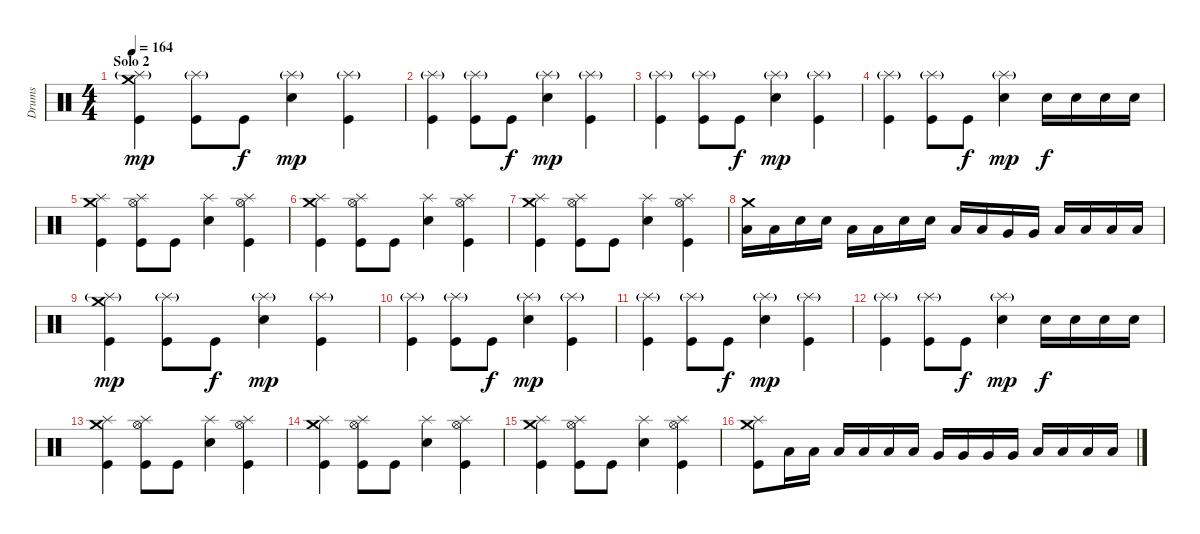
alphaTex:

\track ("Drums" "Drums") {instrument percussion}
\staff {score}
\articulation defaults
\ts (4 4)
\section ("" "Solo 2")
\tempo 164
\clef neutral
\ks c
("Crash medium (hit)" "Splash (hit)"{g} "Kick (hit)").4{dy mp} ("Splash (hit)"{g} "Kick (hit)").8 "Kick (hit)".8{dy f} ("Splash (hit)"{g} "Electric Snare (hit)").4{dy mp} ("Splash (hit)"{g} "Kick (hit)").4 |
("Splash (hit)"{g} "Kick (hit)").4 ("Splash (hit)"{g} "Kick (hit)").8 "Kick (hit)".8{dy f} ("Splash (hit)"{g} "Electric Snare (hit)").4{dy mp} ("Splash (hit)"{g} "Kick (hit)").4 |
("Splash (hit)"{g} "Kick (hit)").4 ("Splash (hit)"{g} "Kick (hit)").8 "Kick (hit)".8{dy f} ("Splash (hit)"{g} "Electric Snare (hit)").4{dy mp} ("Splash (hit)"{g} "Kick (hit)").4 |
("Splash (hit)"{g} "Kick (hit)").4 ("Splash (hit)"{g} "Kick (hit)").8 "Kick (hit)".8{dy f} ("Splash (hit)"{g} "Electric Snare (hit)").4{dy mp} "Electric Snare (hit)".16{dy f} "Electric Snare (hit)".16 "Electric Snare (hit)".16 "Electric Snare (hit)".16 |
("Crash medium (hit)" "Splash (hit)" "Kick (hit)").4 ("Hi-Hat (open)" "Splash (hit)" "Kick (hit)").8 "Kick (hit)".8 ("Splash (hit)" "Electric Snare (hit)").4 ("Hi-Hat (open)" "Splash (hit)" "Kick (hit)").4 |
("Crash medium (hit)" "Splash (hit)" "Kick (hit)").4 ("Hi-Hat (open)" "Splash (hit)" "Kick (hit)").8 "Kick (hit)".8 ("Splash (hit)" "Electric Snare (hit)").4 ("Hi-Hat (open)" "Splash (hit)" "Kick (hit)").4 |
("Crash medium (hit)" "Splash (hit)" "Kick (hit)").4 ("Hi-Hat (open)" "Splash (hit)" "Kick (hit)").8 "Kick (hit)".8 ("Splash (hit)" "Electric Snare (hit)").4 ("Hi-Hat (open)" "Splash (hit)" "Kick (hit)").4 |
("Crash medium (hit)" "Low Tom (hit)").16 "Low Tom (hit)".16 "Electric Snare (hit)".16 "Electric Snare (hit)".16 "Low Tom (hit)".16 "Low Tom (hit)".16 "Electric Snare (hit)".16 "Electric Snare (hit)".16 "Low Tom (hit)".16 "Low Tom (hit)".16 "Very Low Tom (hit)".16 "Very Low Tom (hit)".16 "Low Floor Tom (hit)".16 "Low Floor Tom (hit)".16 "Low Floor Tom (hit)".16 "Low Floor Tom (hit)".16 |
("Crash medium (hit)" "Splash (hit)"{g} "Kick (hit)").4{dy mp} ("Splash (hit)"{g} "Kick (hit)").8 "Kick (hit)".8{dy f} ("Splash (hit)"{g} "Electric Snare (hit)").4{dy mp} ("Splash (hit)"{g} "Kick (hit)").4 |
("Splash (hit)"{g} "Kick (hit)").4 ("Splash (hit)"{g} "Kick (hit)").8 "Kick (hit)".8{dy f} ("Splash (hit)"{g} "Electric Snare (hit)").4{dy mp} ("Splash (hit)"{g} "Kick (hit)").4 |
("Splash (hit)"{g} "Kick (hit)").4 ("Splash (hit)"{g} "Kick (hit)").8 "Kick (hit)".8{dy f} ("Splash (hit)"{g} "Electric Snare (hit)").4{dy mp} ("Splash (hit)"{g} "Kick (hit)").4 |
("Splash (hit)"{g} "Kick (hit)").4 ("Splash (hit)"{g} "Kick (hit)").8 "Kick (hit)".8{dy f} ("Splash (hit)"{g} "Electric Snare (hit)").4{dy mp} "Electric Snare (hit)".16{dy f} "Electric Snare (hit)".16 "Electric Snare (hit)".16 "Electric Snare (hit)".16 |
("Crash medium (hit)" "Splash (hit)" "Kick (hit)").4 ("Hi-Hat (open)" "Splash (hit)" "Kick (hit)").8 "Kick (hit)".8 ("Splash (hit)" "Electric Snare (hit)").4 ("Hi-Hat (open)" "Splash (hit)" "Kick (hit)").4 |
("Crash medium (hit)" "Splash (hit)" "Kick (hit)").4 ("Hi-Hat (open)" "Splash (hit)" "Kick (hit)").8 "Kick (hit)".8 ("Splash (hit)" "Electric Snare (hit)").4 ("Hi-Hat (open)" "Splash (hit)" "Kick (hit)").4 |
("Crash medium (hit)" "Splash (hit)" "Kick (hit)").4 ("Hi-Hat (open)" "Splash (hit)" "Kick (hit)").8 "Kick (hit)".8 ("Splash (hit)" "Electric Snare (hit)").4 ("Hi-Hat (open)" "Splash (hit)" "Kick (hit)").4 |
("Crash medium (hit)" "Splash (hit)" "Kick (hit)").8 "Low Tom (hit)".16 "Low Tom (hit)".16 "Low Tom (hit)".16 "Low Tom (hit)".16 "Low Tom (hit)".16 "Low Tom (hit)".16 "Very Low Tom (hit)".16 "Very Low Tom (hit)".16 "Very Low Tom (hit)".16 "Very Low Tom (hit)".16 "Low Floor Tom (hit)".16 "Low Floor Tom (hit)".16 "Low Floor Tom (hit)".16 "Low Floor Tom (hit)".16
